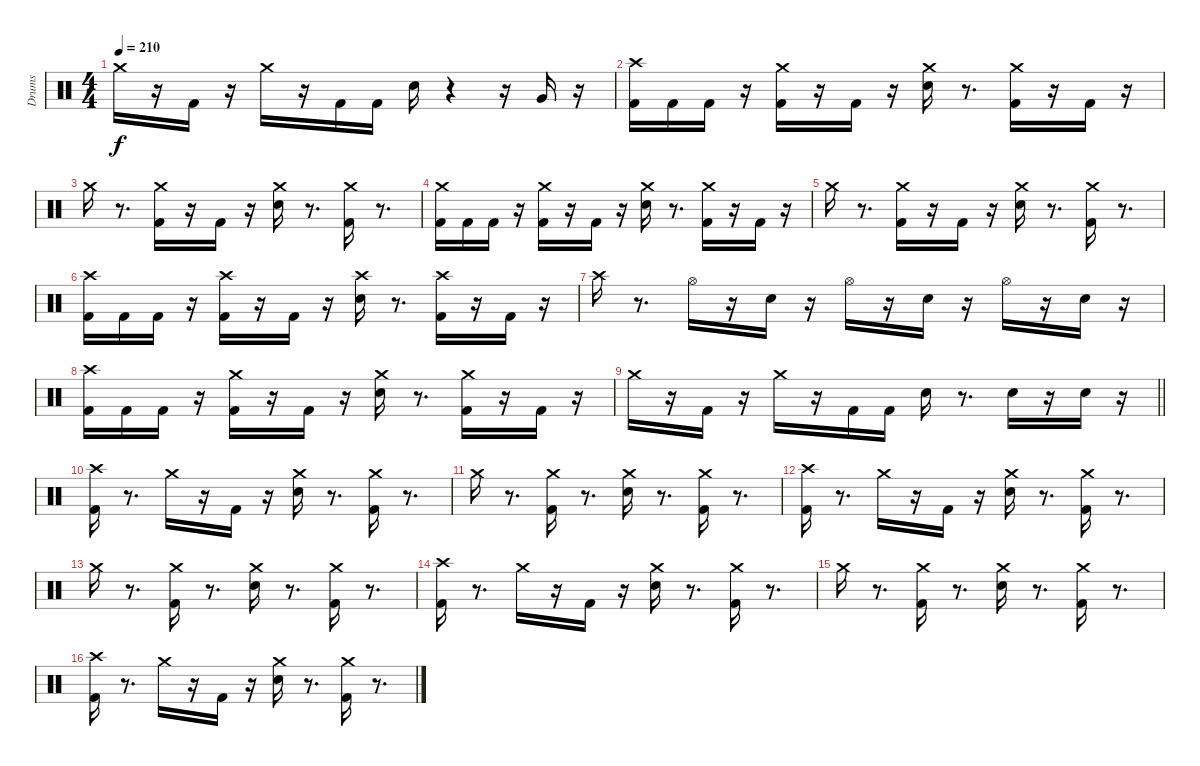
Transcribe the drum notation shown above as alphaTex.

\track ("Drums" "Drums") {instrument percussion}
\staff {score}
\articulation defaults
\ts (4 4)
\tempo 210
\clef neutral
\ks c "Crash medium (hit)".16{dy f}
r.16 "Kick (hit) 2".16 r.16 "Crash medium (hit)".16 r.16 "Kick (hit) 2".16 "Kick (hit) 2".16 "Snare (hit) 2".16 r.4 r.16 "Very Low Tom (hit)".16 r.16 |
("Kick (hit) 2" "Crash high (hit)").16 "Kick (hit) 2".16 "Kick (hit) 2".16 r.16 ("Kick (hit) 2" "Crash medium (hit)").16 r.16 "Kick (hit) 2".16 r.16 ("Snare (hit) 2" "Crash medium (hit)").16 r.8{d} ("Kick (hit) 2" "Crash medium (hit)").16 r.16 "Kick (hit) 2".16 r.16 |
"Crash medium (hit)".16 r.8{d} ("Kick (hit) 2" "Crash medium (hit)").16 r.16 "Kick (hit) 2".16 r.16 ("Snare (hit) 2" "Crash medium (hit)").16 r.8{d} ("Kick (hit) 2" "Crash medium (hit)").16 r.8{d} |
("Kick (hit) 2" "Crash medium (hit)").16 "Kick (hit) 2".16 "Kick (hit) 2".16 r.16 ("Kick (hit) 2" "Crash medium (hit)").16 r.16 "Kick (hit) 2".16 r.16 ("Snare (hit) 2" "Crash medium (hit)").16 r.8{d} ("Kick (hit) 2" "Crash medium (hit)").16 r.16 "Kick (hit) 2".16 r.16 |
"Crash medium (hit)".16 r.8{d} ("Kick (hit) 2" "Crash medium (hit)").16 r.16 "Kick (hit) 2".16 r.16 ("Snare (hit) 2" "Crash medium (hit)").16 r.8{d} ("Kick (hit) 2" "Crash medium (hit)").16 r.8{d} |
("Kick (hit) 2" "Crash high (hit)").16 "Kick (hit) 2".16 "Kick (hit) 2".16 r.16 ("Kick (hit) 2" "Crash high (hit)").16 r.16 "Kick (hit) 2".16 r.16 ("Snare (hit) 2" "Crash high (hit)").16 r.8{d} ("Kick (hit) 2" "Crash high (hit)").16 r.16 "Kick (hit) 2".16 r.16 |
"Crash high (hit)".16 r.8{d} "Hi-Hat (open)".16 r.16 "Snare (hit) 2".16 r.16 "Hi-Hat (open)".16 r.16 "Snare (hit) 2".16 r.16 "Hi-Hat (open)".16 r.16 "Snare (hit) 2".16 r.16 |
("Kick (hit) 2" "Crash high (hit)").16 "Kick (hit) 2".16 "Kick (hit) 2".16 r.16 ("Kick (hit) 2" "Crash medium (hit)").16 r.16 "Kick (hit) 2".16 r.16 ("Snare (hit) 2" "Crash medium (hit)").16 r.8{d} ("Kick (hit) 2" "Crash medium (hit)").16 r.16 "Kick (hit) 2".16 r.16 |
\barLineRight lightlight "Crash medium (hit)".16
r.16 "Kick (hit) 2".16 r.16 "Crash medium (hit)".16 r.16 "Kick (hit) 2".16 "Kick (hit) 2".16 "Snare (hit) 2".16 r.8{d} "Snare (hit) 2".16 r.16 "Snare (hit) 2".16 r.16 |
\section ("" " ")
("Kick (hit) 2" "Crash high (hit)").16 r.8{d} "Crash medium (hit)".16 r.16 "Kick (hit) 2".16 r.16 ("Snare (hit) 2" "Crash medium (hit)").16 r.8{d} ("Kick (hit) 2" "Crash medium (hit)").16 r.8{d} |
"Crash medium (hit)".16 r.8{d} ("Kick (hit) 2" "Crash medium (hit)").16 r.8{d} ("Snare (hit) 2" "Crash medium (hit)").16 r.8{d} ("Kick (hit) 2" "Crash medium (hit)").16 r.8{d} |
("Kick (hit) 2" "Crash high (hit)").16 r.8{d} "Crash medium (hit)".16 r.16 "Kick (hit) 2".16 r.16 ("Snare (hit) 2" "Crash medium (hit)").16 r.8{d} ("Kick (hit) 2" "Crash medium (hit)").16 r.8{d} |
"Crash medium (hit)".16 r.8{d} ("Kick (hit) 2" "Crash medium (hit)").16 r.8{d} ("Snare (hit) 2" "Crash medium (hit)").16 r.8{d} ("Kick (hit) 2" "Crash medium (hit)").16 r.8{d} |
("Kick (hit) 2" "Crash high (hit)").16 r.8{d} "Crash medium (hit)".16 r.16 "Kick (hit) 2".16 r.16 ("Snare (hit) 2" "Crash medium (hit)").16 r.8{d} ("Kick (hit) 2" "Crash medium (hit)").16 r.8{d} |
"Crash medium (hit)".16 r.8{d} ("Kick (hit) 2" "Crash medium (hit)").16 r.8{d} ("Snare (hit) 2" "Crash medium (hit)").16 r.8{d} ("Kick (hit) 2" "Crash medium (hit)").16 r.8{d} |
("Kick (hit) 2" "Crash high (hit)").16 r.8{d} "Crash medium (hit)".16 r.16 "Kick (hit) 2".16 r.16 ("Snare (hit) 2" "Crash medium (hit)").16 r.8{d} ("Kick (hit) 2" "Crash medium (hit)").16 r.8{d}
